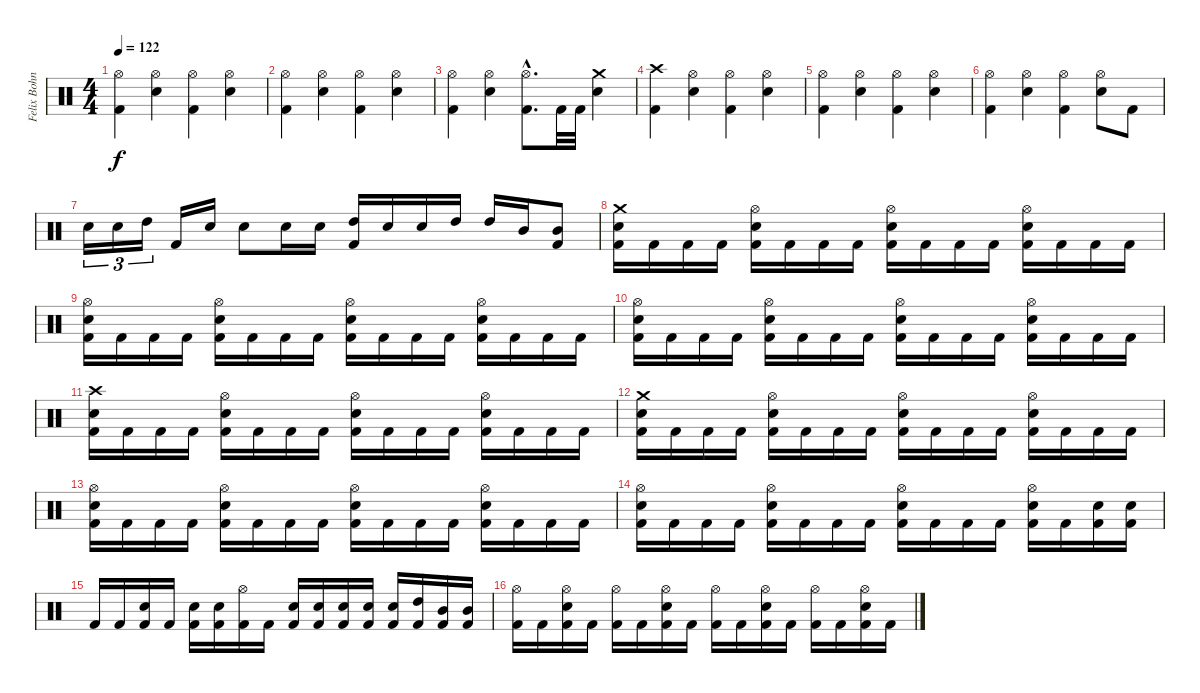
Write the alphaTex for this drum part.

\track ("Felix Bohnke" "Felix Bohn") {instrument percussion}
\staff {score}
\articulation defaults
\ts (4 4)
\tempo 122
\clef neutral
\ks c
("Hi-Hat (open)" "Kick (hit) 2").4{dy f} ("Hi-Hat (open)" "Snare (hit) 2").4 ("Hi-Hat (open)" "Kick (hit) 2").4 ("Hi-Hat (open)" "Snare (hit) 2").4 |
("Hi-Hat (open)" "Kick (hit) 2").4 ("Hi-Hat (open)" "Snare (hit) 2").4 ("Hi-Hat (open)" "Kick (hit) 2").4 ("Hi-Hat (open)" "Snare (hit) 2").4 |
("Hi-Hat (open)" "Kick (hit) 2").4 ("Hi-Hat (open)" "Snare (hit) 2").4 ("Hi-Hat (open)"{hac} "Kick (hit) 2"{hac}).8{d} "Kick (hit) 2".32 "Kick (hit) 2".32 ("Crash medium (hit)" "Snare (hit) 2").4 |
("Crash high (hit)" "Kick (hit) 2").4 ("Hi-Hat (open)" "Snare (hit) 2").4 ("Hi-Hat (open)" "Kick (hit) 2").4 ("Hi-Hat (open)" "Snare (hit) 2").4 |
("Hi-Hat (open)" "Kick (hit) 2").4 ("Hi-Hat (open)" "Snare (hit) 2").4 ("Hi-Hat (open)" "Kick (hit) 2").4 ("Hi-Hat (open)" "Snare (hit) 2").4 |
("Hi-Hat (open)" "Kick (hit) 2").4 ("Hi-Hat (open)" "Snare (hit) 2").4 ("Hi-Hat (open)" "Kick (hit) 2").4 ("Hi-Hat (open)" "Snare (hit) 2").8 "Kick (hit) 2".8 |
"Snare (hit) 2".16{tu (3 2)} "Snare (hit) 2".16{tu (3 2)} "High Tom (hit)".16{tu (3 2)} "Kick (hit) 2".16 "Snare (hit) 2".16 "Snare (hit) 2".8 "Snare (hit) 2".16 "Snare (hit) 2".16 ("High Tom (hit)" "Kick (hit) 2").16 "Snare (hit) 2".16 "Snare (hit) 2".16 "High Tom (hit)".16 "High Tom (hit)".16 "Mid Tom (hit)".16 ("Mid Tom (hit)" "Kick (hit) 2").8 |
("Crash medium (hit)" "Snare (hit) 2" "Kick (hit) 2").16 "Kick (hit) 2".16 "Kick (hit) 2".16 "Kick (hit) 2".16 ("Hi-Hat (open)" "Snare (hit) 2" "Kick (hit) 2").16 "Kick (hit) 2".16 "Kick (hit) 2".16 "Kick (hit) 2".16 ("Hi-Hat (open)" "Snare (hit) 2" "Kick (hit) 2").16 "Kick (hit) 2".16 "Kick (hit) 2".16 "Kick (hit) 2".16 ("Hi-Hat (open)" "Snare (hit) 2" "Kick (hit) 2").16 "Kick (hit) 2".16 "Kick (hit) 2".16 "Kick (hit) 2".16 |
("Hi-Hat (open)" "Snare (hit) 2" "Kick (hit) 2").16 "Kick (hit) 2".16 "Kick (hit) 2".16 "Kick (hit) 2".16 ("Hi-Hat (open)" "Snare (hit) 2" "Kick (hit) 2").16 "Kick (hit) 2".16 "Kick (hit) 2".16 "Kick (hit) 2".16 ("Hi-Hat (open)" "Snare (hit) 2" "Kick (hit) 2").16 "Kick (hit) 2".16 "Kick (hit) 2".16 "Kick (hit) 2".16 ("Hi-Hat (open)" "Snare (hit) 2" "Kick (hit) 2").16 "Kick (hit) 2".16 "Kick (hit) 2".16 "Kick (hit) 2".16 |
("Hi-Hat (open)" "Snare (hit) 2" "Kick (hit) 2").16 "Kick (hit) 2".16 "Kick (hit) 2".16 "Kick (hit) 2".16 ("Hi-Hat (open)" "Snare (hit) 2" "Kick (hit) 2").16 "Kick (hit) 2".16 "Kick (hit) 2".16 "Kick (hit) 2".16 ("Hi-Hat (open)" "Snare (hit) 2" "Kick (hit) 2").16 "Kick (hit) 2".16 "Kick (hit) 2".16 "Kick (hit) 2".16 ("Hi-Hat (open)" "Snare (hit) 2" "Kick (hit) 2").16 "Kick (hit) 2".16 "Kick (hit) 2".16 "Kick (hit) 2".16 |
("Crash high (hit)" "Snare (hit) 2" "Kick (hit) 2").16 "Kick (hit) 2".16 "Kick (hit) 2".16 "Kick (hit) 2".16 ("Hi-Hat (open)" "Snare (hit) 2" "Kick (hit) 2").16 "Kick (hit) 2".16 "Kick (hit) 2".16 "Kick (hit) 2".16 ("Hi-Hat (open)" "Snare (hit) 2" "Kick (hit) 2").16 "Kick (hit) 2".16 "Kick (hit) 2".16 "Kick (hit) 2".16 ("Hi-Hat (open)" "Snare (hit) 2" "Kick (hit) 2").16 "Kick (hit) 2".16 "Kick (hit) 2".16 "Kick (hit) 2".16 |
("Crash medium (hit)" "Snare (hit) 2" "Kick (hit) 2").16 "Kick (hit) 2".16 "Kick (hit) 2".16 "Kick (hit) 2".16 ("Hi-Hat (open)" "Snare (hit) 2" "Kick (hit) 2").16 "Kick (hit) 2".16 "Kick (hit) 2".16 "Kick (hit) 2".16 ("Hi-Hat (open)" "Snare (hit) 2" "Kick (hit) 2").16 "Kick (hit) 2".16 "Kick (hit) 2".16 "Kick (hit) 2".16 ("Hi-Hat (open)" "Snare (hit) 2" "Kick (hit) 2").16 "Kick (hit) 2".16 "Kick (hit) 2".16 "Kick (hit) 2".16 |
("Hi-Hat (open)" "Snare (hit) 2" "Kick (hit) 2").16 "Kick (hit) 2".16 "Kick (hit) 2".16 "Kick (hit) 2".16 ("Hi-Hat (open)" "Snare (hit) 2" "Kick (hit) 2").16 "Kick (hit) 2".16 "Kick (hit) 2".16 "Kick (hit) 2".16 ("Hi-Hat (open)" "Snare (hit) 2" "Kick (hit) 2").16 "Kick (hit) 2".16 "Kick (hit) 2".16 "Kick (hit) 2".16 ("Hi-Hat (open)" "Snare (hit) 2" "Kick (hit) 2").16 "Kick (hit) 2".16 "Kick (hit) 2".16 "Kick (hit) 2".16 |
("Hi-Hat (open)" "Snare (hit) 2" "Kick (hit) 2").16 "Kick (hit) 2".16 "Kick (hit) 2".16 "Kick (hit) 2".16 ("Hi-Hat (open)" "Snare (hit) 2" "Kick (hit) 2").16 "Kick (hit) 2".16 "Kick (hit) 2".16 "Kick (hit) 2".16 ("Hi-Hat (open)" "Snare (hit) 2" "Kick (hit) 2").16 "Kick (hit) 2".16 "Kick (hit) 2".16 "Kick (hit) 2".16 ("Hi-Hat (open)" "Snare (hit) 2" "Kick (hit) 2").16 "Kick (hit) 2".16 ("Snare (hit) 2" "Kick (hit) 2").16 ("Snare (hit) 2" "Kick (hit) 2").16 |
"Kick (hit) 2".16 "Kick (hit) 2".16 ("Snare (hit) 2" "Kick (hit) 2").16 "Kick (hit) 2".16 ("Snare (hit) 2" "Kick (hit) 2").16 ("Snare (hit) 2" "Kick (hit) 2").16 ("Hi-Hat (open)" "Kick (hit) 2").16 "Kick (hit) 2".16 ("Snare (hit) 2" "Kick (hit) 2").16 ("Snare (hit) 2" "Kick (hit) 2").16 ("Snare (hit) 2" "Kick (hit) 2").16 ("Snare (hit) 2" "Kick (hit) 2").16 ("Snare (hit) 2" "Kick (hit) 2").16 ("High Tom (hit)" "Kick (hit) 2").16 ("Mid Tom (hit)" "Kick (hit) 2").16 ("Mid Tom (hit)" "Kick (hit) 2").16 |
("Hi-Hat (open)" "Kick (hit) 2").16 "Kick (hit) 2".16 ("Hi-Hat (open)" "Snare (hit) 2" "Kick (hit) 2").16 "Kick (hit) 2".16 ("Hi-Hat (open)" "Kick (hit) 2").16 "Kick (hit) 2".16 ("Hi-Hat (open)" "Snare (hit) 2" "Kick (hit) 2").16 "Kick (hit) 2".16 ("Hi-Hat (open)" "Kick (hit) 2").16 "Kick (hit) 2".16 ("Hi-Hat (open)" "Snare (hit) 2" "Kick (hit) 2").16 "Kick (hit) 2".16 ("Hi-Hat (open)" "Kick (hit) 2").16 "Kick (hit) 2".16 ("Hi-Hat (open)" "Snare (hit) 2" "Kick (hit) 2").16 "Kick (hit) 2".16
